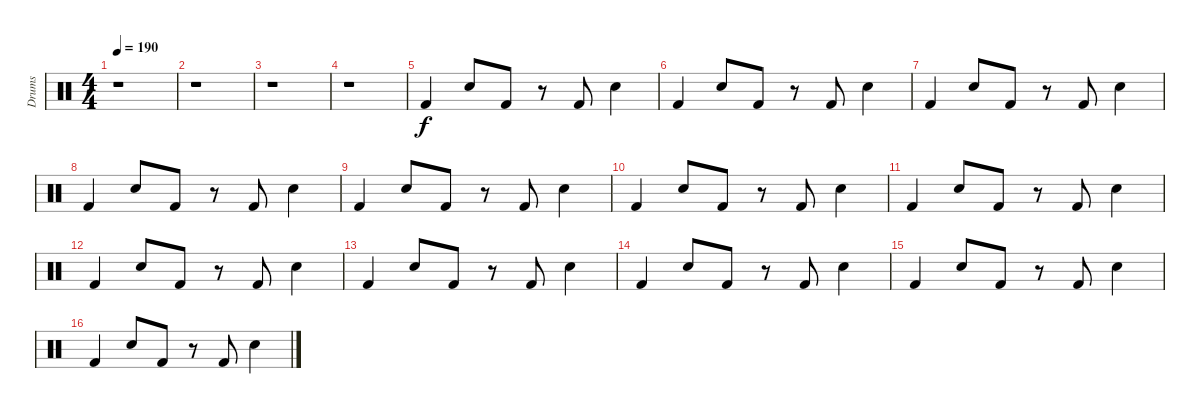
\track ("Drums" "Drums") {instrument percussion}
\staff {score}
\articulation defaults
\ts (4 4)
\tempo 190
\clef neutral
\ks c
r.1{dy f} |
r.1 |
r.1 |
r.1 |
"Kick (hit) 2".4 "Electric Snare (hit)".8 "Kick (hit) 2".8 r.8 "Kick (hit) 2".8 "Electric Snare (hit)".4 |
"Kick (hit) 2".4 "Electric Snare (hit)".8 "Kick (hit) 2".8 r.8 "Kick (hit) 2".8 "Electric Snare (hit)".4 |
"Kick (hit) 2".4 "Electric Snare (hit)".8 "Kick (hit) 2".8 r.8 "Kick (hit) 2".8 "Electric Snare (hit)".4 |
"Kick (hit) 2".4 "Electric Snare (hit)".8 "Kick (hit) 2".8 r.8 "Kick (hit) 2".8 "Electric Snare (hit)".4 |
"Kick (hit) 2".4 "Electric Snare (hit)".8 "Kick (hit) 2".8 r.8 "Kick (hit) 2".8 "Electric Snare (hit)".4 |
"Kick (hit) 2".4 "Electric Snare (hit)".8 "Kick (hit) 2".8 r.8 "Kick (hit) 2".8 "Electric Snare (hit)".4 |
"Kick (hit) 2".4 "Electric Snare (hit)".8 "Kick (hit) 2".8 r.8 "Kick (hit) 2".8 "Electric Snare (hit)".4 |
"Kick (hit) 2".4 "Electric Snare (hit)".8 "Kick (hit) 2".8 r.8 "Kick (hit) 2".8 "Electric Snare (hit)".4 |
"Kick (hit) 2".4 "Electric Snare (hit)".8 "Kick (hit) 2".8 r.8 "Kick (hit) 2".8 "Electric Snare (hit)".4 |
"Kick (hit) 2".4 "Electric Snare (hit)".8 "Kick (hit) 2".8 r.8 "Kick (hit) 2".8 "Electric Snare (hit)".4 |
"Kick (hit) 2".4 "Electric Snare (hit)".8 "Kick (hit) 2".8 r.8 "Kick (hit) 2".8 "Electric Snare (hit)".4 |
"Kick (hit) 2".4 "Electric Snare (hit)".8 "Kick (hit) 2".8 r.8 "Kick (hit) 2".8 "Electric Snare (hit)".4
